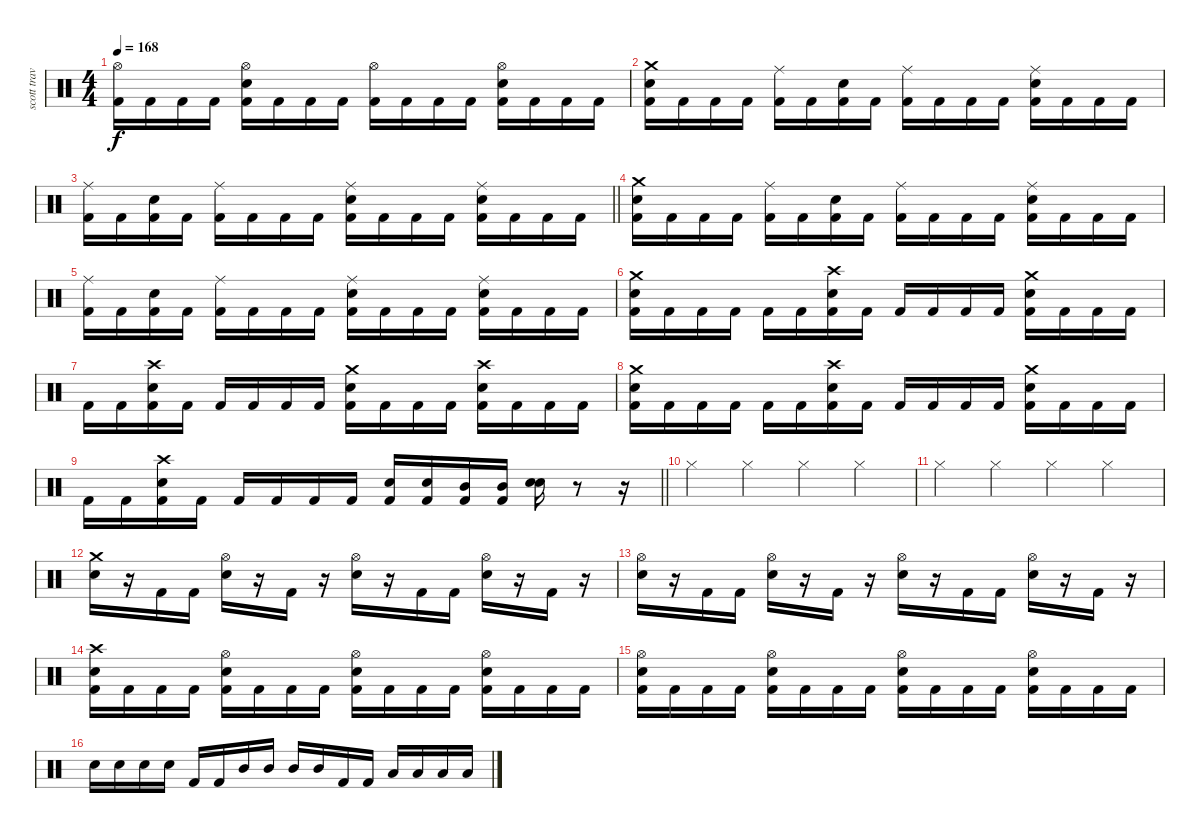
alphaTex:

\track ("scott travis" "scott trav") {instrument percussion}
\staff {score}
\articulation defaults
\ts (4 4)
\tempo 168
\clef neutral
\ks c
("Hi-Hat (open)" "Kick (hit) 2").16{dy f} "Kick (hit) 2".16 "Kick (hit) 2".16 "Kick (hit) 2".16 ("Hi-Hat (open)" "Snare (hit) 2" "Kick (hit) 2").16 "Kick (hit) 2".16 "Kick (hit) 2".16 "Kick (hit) 2".16 ("Hi-Hat (open)" "Kick (hit) 2").16 "Kick (hit) 2".16 "Kick (hit) 2".16 "Kick (hit) 2".16 ("Hi-Hat (open)" "Snare (hit) 2" "Kick (hit) 2").16 "Kick (hit) 2".16 "Kick (hit) 2".16 "Kick (hit) 2".16 |
("Crash medium (hit)" "Snare (hit) 2" "Kick (hit) 2").16 "Kick (hit) 2".16 "Kick (hit) 2".16 "Kick (hit) 2".16 ("Ride (middle)" "Kick (hit) 2").16 "Kick (hit) 2".16 ("Snare (hit) 2" "Kick (hit) 2").16 "Kick (hit) 2".16 ("Ride (middle)" "Kick (hit) 2").16 "Kick (hit) 2".16 "Kick (hit) 2".16 "Kick (hit) 2".16 ("Ride (middle)" "Snare (hit) 2" "Kick (hit) 2").16 "Kick (hit) 2".16 "Kick (hit) 2".16 "Kick (hit) 2".16 |
\barLineRight lightlight
("Ride (middle)" "Kick (hit) 2").16 "Kick (hit) 2".16 ("Snare (hit) 2" "Kick (hit) 2").16 "Kick (hit) 2".16 ("Ride (middle)" "Kick (hit) 2").16 "Kick (hit) 2".16 "Kick (hit) 2".16 "Kick (hit) 2".16 ("Ride (middle)" "Snare (hit) 2" "Kick (hit) 2").16 "Kick (hit) 2".16 "Kick (hit) 2".16 "Kick (hit) 2".16 ("Ride (middle)" "Snare (hit) 2" "Kick (hit) 2").16 "Kick (hit) 2".16 "Kick (hit) 2".16 "Kick (hit) 2".16 |
("Crash medium (hit)" "Snare (hit) 2" "Kick (hit) 2").16 "Kick (hit) 2".16 "Kick (hit) 2".16 "Kick (hit) 2".16 ("Ride (middle)" "Kick (hit) 2").16 "Kick (hit) 2".16 ("Snare (hit) 2" "Kick (hit) 2").16 "Kick (hit) 2".16 ("Ride (middle)" "Kick (hit) 2").16 "Kick (hit) 2".16 "Kick (hit) 2".16 "Kick (hit) 2".16 ("Ride (middle)" "Snare (hit) 2" "Kick (hit) 2").16 "Kick (hit) 2".16 "Kick (hit) 2".16 "Kick (hit) 2".16 |
("Ride (middle)" "Kick (hit) 2").16 "Kick (hit) 2".16 ("Snare (hit) 2" "Kick (hit) 2").16 "Kick (hit) 2".16 ("Ride (middle)" "Kick (hit) 2").16 "Kick (hit) 2".16 "Kick (hit) 2".16 "Kick (hit) 2".16 ("Ride (middle)" "Snare (hit) 2" "Kick (hit) 2").16 "Kick (hit) 2".16 "Kick (hit) 2".16 "Kick (hit) 2".16 ("Ride (middle)" "Snare (hit) 2" "Kick (hit) 2").16 "Kick (hit) 2".16 "Kick (hit) 2".16 "Kick (hit) 2".16 |
("Crash medium (hit)" "Snare (hit) 2" "Kick (hit) 2").16 "Kick (hit) 2".16 "Kick (hit) 2".16 "Kick (hit) 2".16 "Kick (hit) 2".16 "Kick (hit) 2".16 ("Crash high (hit)" "Snare (hit) 2" "Kick (hit) 2").16 "Kick (hit) 2".16 "Kick (hit) 2".16 "Kick (hit) 2".16 "Kick (hit) 2".16 "Kick (hit) 2".16 ("Crash medium (hit)" "Snare (hit) 2" "Kick (hit) 2").16 "Kick (hit) 2".16 "Kick (hit) 2".16 "Kick (hit) 2".16 |
"Kick (hit) 2".16 "Kick (hit) 2".16 ("Crash high (hit)" "Snare (hit) 2" "Kick (hit) 2").16 "Kick (hit) 2".16 "Kick (hit) 2".16 "Kick (hit) 2".16 "Kick (hit) 2".16 "Kick (hit) 2".16 ("Crash medium (hit)" "Snare (hit) 2" "Kick (hit) 2").16 "Kick (hit) 2".16 "Kick (hit) 2".16 "Kick (hit) 2".16 ("Crash high (hit)" "Snare (hit) 2" "Kick (hit) 2").16 "Kick (hit) 2".16 "Kick (hit) 2".16 "Kick (hit) 2".16 |
("Crash medium (hit)" "Snare (hit) 2" "Kick (hit) 2").16 "Kick (hit) 2".16 "Kick (hit) 2".16 "Kick (hit) 2".16 "Kick (hit) 2".16 "Kick (hit) 2".16 ("Crash high (hit)" "Snare (hit) 2" "Kick (hit) 2").16 "Kick (hit) 2".16 "Kick (hit) 2".16 "Kick (hit) 2".16 "Kick (hit) 2".16 "Kick (hit) 2".16 ("Crash medium (hit)" "Snare (hit) 2" "Kick (hit) 2").16 "Kick (hit) 2".16 "Kick (hit) 2".16 "Kick (hit) 2".16 |
\barLineRight lightlight "Kick (hit) 2".16 "Kick (hit) 2".16
("Crash high (hit)" "Snare (hit) 2" "Kick (hit) 2").16 "Kick (hit) 2".16 "Kick (hit) 2".16 "Kick (hit) 2".16 "Kick (hit) 2".16 "Kick (hit) 2".16 ("Snare (hit) 2" "Kick (hit) 2").16 ("Snare (hit) 2" "Kick (hit) 2").16 ("Mid Tom (hit)" "Kick (hit) 2").16 ("Mid Tom (hit)" "Kick (hit) 2").16 ("Snare (hit) 2" "Snare (hit) 2").16 r.8 r.16 |
"Hi-Hat (closed)".4 "Hi-Hat (closed)".4 "Hi-Hat (closed)".4 "Hi-Hat (closed)".4 |
"Hi-Hat (closed)".4 "Hi-Hat (closed)".4 "Hi-Hat (closed)".4 "Hi-Hat (closed)".4 |
("Crash medium (hit)" "Snare (hit) 2").16 r.16 "Kick (hit) 2".16 "Kick (hit) 2".16 ("Hi-Hat (open)" "Snare (hit) 2").16 r.16 "Kick (hit) 2".16 r.16 ("Hi-Hat (open)" "Snare (hit) 2").16 r.16 "Kick (hit) 2".16 "Kick (hit) 2".16 ("Hi-Hat (open)" "Snare (hit) 2").16 r.16 "Kick (hit) 2".16 r.16 |
("Hi-Hat (open)" "Snare (hit) 2").16 r.16 "Kick (hit) 2".16 "Kick (hit) 2".16 ("Hi-Hat (open)" "Snare (hit) 2").16 r.16 "Kick (hit) 2".16 r.16 ("Hi-Hat (open)" "Snare (hit) 2").16 r.16 "Kick (hit) 2".16 "Kick (hit) 2".16 ("Hi-Hat (open)" "Snare (hit) 2").16 r.16 "Kick (hit) 2".16 r.16 |
("Crash high (hit)" "Snare (hit) 2" "Kick (hit) 2").16 "Kick (hit) 2".16 "Kick (hit) 2".16 "Kick (hit) 2".16 ("Hi-Hat (open)" "Snare (hit) 2" "Kick (hit) 2").16 "Kick (hit) 2".16 "Kick (hit) 2".16 "Kick (hit) 2".16 ("Hi-Hat (open)" "Snare (hit) 2" "Kick (hit) 2").16 "Kick (hit) 2".16 "Kick (hit) 2".16 "Kick (hit) 2".16 ("Hi-Hat (open)" "Snare (hit) 2" "Kick (hit) 2").16 "Kick (hit) 2".16 "Kick (hit) 2".16 "Kick (hit) 2".16 |
("Hi-Hat (open)" "Snare (hit) 2" "Kick (hit) 2").16 "Kick (hit) 2".16 "Kick (hit) 2".16 "Kick (hit) 2".16 ("Hi-Hat (open)" "Snare (hit) 2" "Kick (hit) 2").16 "Kick (hit) 2".16 "Kick (hit) 2".16 "Kick (hit) 2".16 ("Hi-Hat (open)" "Snare (hit) 2" "Kick (hit) 2").16 "Kick (hit) 2".16 "Kick (hit) 2".16 "Kick (hit) 2".16 ("Hi-Hat (open)" "Snare (hit) 2" "Kick (hit) 2").16 "Kick (hit) 2".16 "Kick (hit) 2".16 "Kick (hit) 2".16 |
"Snare (hit) 2".16 "Snare (hit) 2".16 "Snare (hit) 2".16 "Snare (hit) 2".16 "Kick (hit) 2".16 "Kick (hit) 2".16 "Mid Tom (hit)".16 "Mid Tom (hit)".16 "Mid Tom (hit)".16 "Mid Tom (hit)".16 "Kick (hit) 2".16 "Kick (hit) 2".16 "Low Tom (hit)".16 "Low Tom (hit)".16 "Low Tom (hit)".16 "Low Tom (hit)".16
